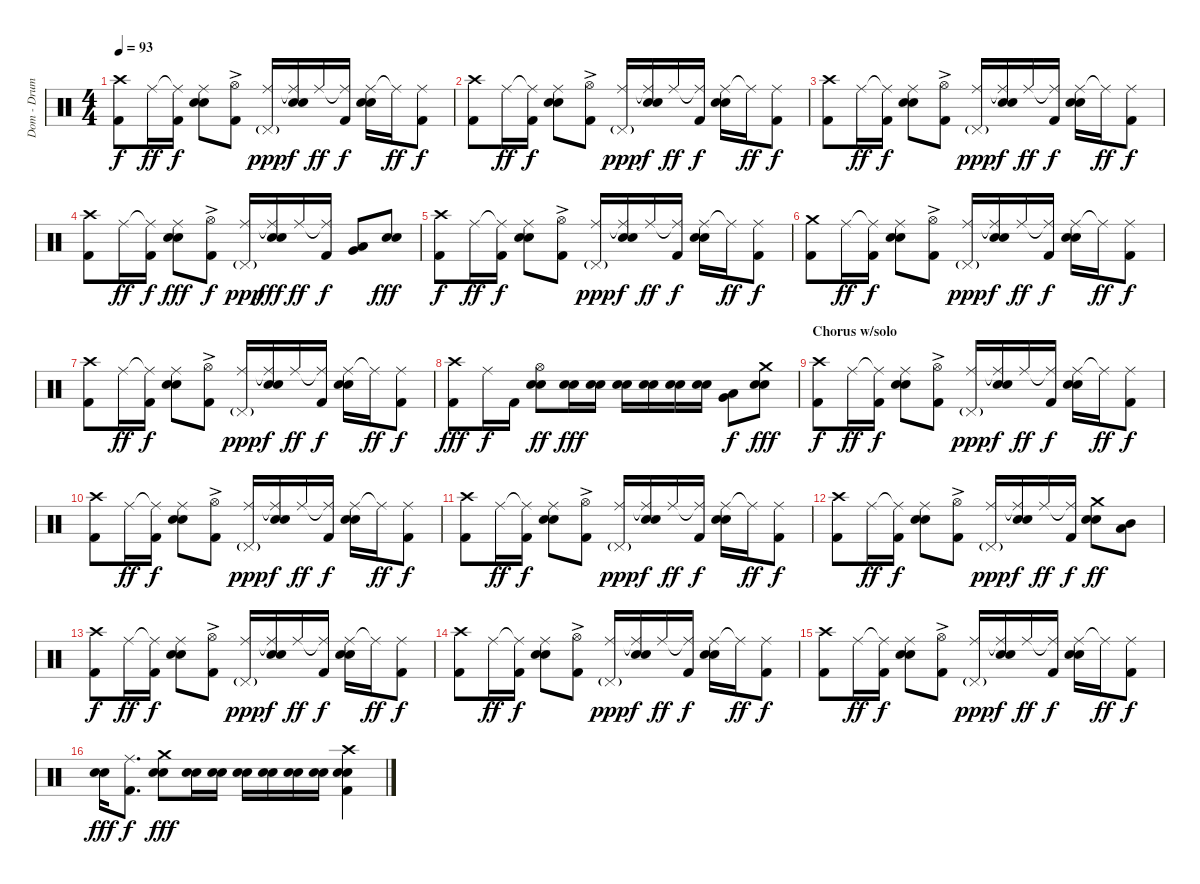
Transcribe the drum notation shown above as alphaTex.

\track ("Dom - Drums" "Dom - Drum") {instrument percussion}
\staff {score}
\articulation defaults
\ts (4 4)
\tempo 93
\clef neutral
\ks c
("Crash high (hit)" "Kick (hit) 2").8{dy f} "Ride (middle)".16{dy ff} ("Ride (middle)"{t} "Kick (hit) 2").16{dy f} ("Ride (middle)" "Snare (hit) 2" "Electric Snare (hit)").8 ("Hi-Hat (open)"{ac} "Kick (hit) 2").8 ("Ride (middle)" "Pedal Hi-Hat (hit)"{g}).16{dy ppp} ("Ride (middle)"{t} "Snare (hit) 2" "Electric Snare (hit)").16{dy f} "Ride (middle)".16{dy ff} ("Ride (middle)"{t} "Kick (hit) 2").16{dy f} ("Ride (middle)" "Snare (hit) 2" "Electric Snare (hit)").16 "Ride (middle)"{t}.16{dy ff} ("Ride (middle)" "Kick (hit) 2").8{dy f} |
("Crash high (hit)" "Kick (hit) 2").8 "Ride (middle)".16{dy ff} ("Ride (middle)"{t} "Kick (hit) 2").16{dy f} ("Ride (middle)" "Snare (hit) 2" "Electric Snare (hit)").8 ("Hi-Hat (open)"{ac} "Kick (hit) 2").8 ("Ride (middle)" "Pedal Hi-Hat (hit)"{g}).16{dy ppp} ("Ride (middle)"{t} "Snare (hit) 2" "Electric Snare (hit)").16{dy f} "Ride (middle)".16{dy ff} ("Ride (middle)"{t} "Kick (hit) 2").16{dy f} ("Ride (middle)" "Snare (hit) 2" "Electric Snare (hit)").16 "Ride (middle)"{t}.16{dy ff} ("Ride (middle)" "Kick (hit) 2").8{dy f} |
("Crash high (hit)" "Kick (hit) 2").8 "Ride (middle)".16{dy ff} ("Ride (middle)"{t} "Kick (hit) 2").16{dy f} ("Ride (middle)" "Snare (hit) 2" "Electric Snare (hit)").8 ("Hi-Hat (open)"{ac} "Kick (hit) 2").8 ("Ride (middle)" "Pedal Hi-Hat (hit)"{g}).16{dy ppp} ("Ride (middle)"{t} "Snare (hit) 2" "Electric Snare (hit)").16{dy f} "Ride (middle)".16{dy ff} ("Ride (middle)"{t} "Kick (hit) 2").16{dy f} ("Ride (middle)" "Snare (hit) 2" "Electric Snare (hit)").16 "Ride (middle)"{t}.16{dy ff} ("Ride (middle)" "Kick (hit) 2").8{dy f} |
("Crash high (hit)" "Kick (hit) 2").8 "Ride (middle)".16{dy ff} ("Ride (middle)"{t} "Kick (hit) 2").16{dy f} ("Ride (middle)" "Snare (hit) 2" "Electric Snare (hit)").8{dy fff} ("Hi-Hat (open)"{ac} "Kick (hit) 2").8{dy f} ("Ride (middle)" "Pedal Hi-Hat (hit)"{g}).16{dy ppp} ("Ride (middle)"{t} "Snare (hit) 2" "Electric Snare (hit)").16{dy fff} "Ride (middle)".16{dy ff} ("Ride (middle)"{t} "Kick (hit) 2").16{dy f} ("Low Floor Tom (hit)" "Very Low Tom (hit)").8{bd 240} ("Snare (hit) 2" "Electric Snare (hit)").8{bd 240 dy fff} |
("Crash high (hit)" "Kick (hit) 2").8{dy f} "Ride (middle)".16{dy ff} ("Ride (middle)"{t} "Kick (hit) 2").16{dy f} ("Ride (middle)" "Snare (hit) 2" "Electric Snare (hit)").8 ("Hi-Hat (open)"{ac} "Kick (hit) 2").8 ("Ride (middle)" "Pedal Hi-Hat (hit)"{g}).16{dy ppp} ("Ride (middle)"{t} "Snare (hit) 2" "Electric Snare (hit)").16{dy f} "Ride (middle)".16{dy ff} ("Ride (middle)"{t} "Kick (hit) 2").16{dy f} ("Ride (middle)" "Snare (hit) 2" "Electric Snare (hit)").16 "Ride (middle)"{t}.16{dy ff} ("Ride (middle)" "Kick (hit) 2").8{dy f} |
("Crash medium (hit)" "Kick (hit) 2").8 "Ride (middle)".16{dy ff} ("Ride (middle)"{t} "Kick (hit) 2").16{dy f} ("Ride (middle)" "Snare (hit) 2" "Electric Snare (hit)").8 ("Hi-Hat (open)"{ac} "Kick (hit) 2").8 ("Ride (middle)" "Pedal Hi-Hat (hit)"{g}).16{dy ppp} ("Ride (middle)"{t} "Snare (hit) 2" "Electric Snare (hit)").16{dy f} "Ride (middle)".16{dy ff} ("Ride (middle)"{t} "Kick (hit) 2").16{dy f} ("Ride (middle)" "Snare (hit) 2" "Electric Snare (hit)").16 "Ride (middle)"{t}.16{dy ff} ("Ride (middle)" "Kick (hit) 2").8{dy f} |
("Crash high (hit)" "Kick (hit) 2").8 "Ride (middle)".16{dy ff} ("Ride (middle)"{t} "Kick (hit) 2").16{dy f} ("Ride (middle)" "Snare (hit) 2" "Electric Snare (hit)").8 ("Hi-Hat (open)"{ac} "Kick (hit) 2").8 ("Ride (middle)" "Pedal Hi-Hat (hit)"{g}).16{dy ppp} ("Ride (middle)"{t} "Snare (hit) 2" "Electric Snare (hit)").16{dy f} "Ride (middle)".16{dy ff} ("Ride (middle)"{t} "Kick (hit) 2").16{dy f} ("Ride (middle)" "Snare (hit) 2" "Electric Snare (hit)").16 "Ride (middle)"{t}.16{dy ff} ("Ride (middle)" "Kick (hit) 2").8{dy f} |
("Crash high (hit)" "Kick (hit) 2").8{dy fff} "Ride (middle)".16{dy f} "Kick (hit) 2".16 ("Hi-Hat (open)" "Electric Snare (hit)" "Snare (hit) 2").8{dy ff} ("Electric Snare (hit)" "Snare (hit) 2").16{dy fff} ("Electric Snare (hit)" "Snare (hit) 2").16 ("Electric Snare (hit)" "Snare (hit) 2").16 ("Electric Snare (hit)" "Snare (hit) 2").16 ("Electric Snare (hit)" "Snare (hit) 2").16 ("Electric Snare (hit)" "Snare (hit) 2").16 ("Very Low Tom (hit)" "Low Tom (hit)").8{bd 240 dy f} ("Crash medium (hit)" "Electric Snare (hit)" "Snare (hit) 2").8{bd 240 dy fff} |
\section ("" "Chorus w/solo")
("Crash high (hit)" "Kick (hit) 2").8{dy f} "Ride (middle)".16{dy ff} ("Ride (middle)"{t} "Kick (hit) 2").16{dy f} ("Ride (middle)" "Snare (hit) 2" "Electric Snare (hit)").8 ("Hi-Hat (open)"{ac} "Kick (hit) 2").8 ("Ride (middle)" "Pedal Hi-Hat (hit)"{g}).16{dy ppp} ("Ride (middle)"{t} "Snare (hit) 2" "Electric Snare (hit)").16{dy f} "Ride (middle)".16{dy ff} ("Ride (middle)"{t} "Kick (hit) 2").16{dy f} ("Ride (middle)" "Snare (hit) 2" "Electric Snare (hit)").16 "Ride (middle)"{t}.16{dy ff} ("Ride (middle)" "Kick (hit) 2").8{dy f} |
("Crash high (hit)" "Kick (hit) 2").8 "Ride (middle)".16{dy ff} ("Ride (middle)"{t} "Kick (hit) 2").16{dy f} ("Ride (middle)" "Snare (hit) 2" "Electric Snare (hit)").8 ("Hi-Hat (open)"{ac} "Kick (hit) 2").8 ("Ride (middle)" "Pedal Hi-Hat (hit)"{g}).16{dy ppp} ("Ride (middle)"{t} "Snare (hit) 2" "Electric Snare (hit)").16{dy f} "Ride (middle)".16{dy ff} ("Ride (middle)"{t} "Kick (hit) 2").16{dy f} ("Ride (middle)" "Snare (hit) 2" "Electric Snare (hit)").16 "Ride (middle)"{t}.16{dy ff} ("Ride (middle)" "Kick (hit) 2").8{dy f} |
("Crash high (hit)" "Kick (hit) 2").8 "Ride (middle)".16{dy ff} ("Ride (middle)"{t} "Kick (hit) 2").16{dy f} ("Ride (middle)" "Snare (hit) 2" "Electric Snare (hit)").8 ("Hi-Hat (open)"{ac} "Kick (hit) 2").8 ("Ride (middle)" "Pedal Hi-Hat (hit)"{g}).16{dy ppp} ("Ride (middle)"{t} "Snare (hit) 2" "Electric Snare (hit)").16{dy f} "Ride (middle)".16{dy ff} ("Ride (middle)"{t} "Kick (hit) 2").16{dy f} ("Ride (middle)" "Snare (hit) 2" "Electric Snare (hit)").16 "Ride (middle)"{t}.16{dy ff} ("Ride (middle)" "Kick (hit) 2").8{dy f} |
("Crash high (hit)" "Kick (hit) 2").8 "Ride (middle)".16{dy ff} ("Ride (middle)"{t} "Kick (hit) 2").16{dy f} ("Ride (middle)" "Snare (hit) 2" "Electric Snare (hit)").8 ("Hi-Hat (open)"{ac} "Kick (hit) 2").8 ("Ride (middle)" "Pedal Hi-Hat (hit)"{g}).16{dy ppp} ("Ride (middle)"{t} "Snare (hit) 2" "Electric Snare (hit)").16{dy f} "Ride (middle)".16{dy ff} ("Ride (middle)"{t} "Kick (hit) 2").16{dy f} ("Crash medium (hit)" "Snare (hit) 2" "Electric Snare (hit)").8{dy ff} ("Mid Tom (hit)" "Low Tom (hit)").8{bd 240} |
("Crash high (hit)" "Kick (hit) 2").8{dy f} "Ride (middle)".16{dy ff} ("Ride (middle)"{t} "Kick (hit) 2").16{dy f} ("Ride (middle)" "Snare (hit) 2" "Electric Snare (hit)").8 ("Hi-Hat (open)"{ac} "Kick (hit) 2").8 ("Ride (middle)" "Pedal Hi-Hat (hit)"{g}).16{dy ppp} ("Ride (middle)"{t} "Snare (hit) 2" "Electric Snare (hit)").16{dy f} "Ride (middle)".16{dy ff} ("Ride (middle)"{t} "Kick (hit) 2").16{dy f} ("Ride (middle)" "Snare (hit) 2" "Electric Snare (hit)").16 "Ride (middle)"{t}.16{dy ff} ("Ride (middle)" "Kick (hit) 2").8{dy f} |
("Crash high (hit)" "Kick (hit) 2").8 "Ride (middle)".16{dy ff} ("Ride (middle)"{t} "Kick (hit) 2").16{dy f} ("Ride (middle)" "Snare (hit) 2" "Electric Snare (hit)").8 ("Hi-Hat (open)"{ac} "Kick (hit) 2").8 ("Ride (middle)" "Pedal Hi-Hat (hit)"{g}).16{dy ppp} ("Ride (middle)"{t} "Snare (hit) 2" "Electric Snare (hit)").16{dy f} "Ride (middle)".16{dy ff} ("Ride (middle)"{t} "Kick (hit) 2").16{dy f} ("Ride (middle)" "Snare (hit) 2" "Electric Snare (hit)").16 "Ride (middle)"{t}.16{dy ff} ("Ride (middle)" "Kick (hit) 2").8{dy f} |
("Crash high (hit)" "Kick (hit) 2").8 "Ride (middle)".16{dy ff} ("Ride (middle)"{t} "Kick (hit) 2").16{dy f} ("Ride (middle)" "Snare (hit) 2" "Electric Snare (hit)").8 ("Hi-Hat (open)"{ac} "Kick (hit) 2").8 ("Ride (middle)" "Pedal Hi-Hat (hit)"{g}).16{dy ppp} ("Ride (middle)"{t} "Snare (hit) 2" "Electric Snare (hit)").16{dy f} "Ride (middle)".16{dy ff} ("Ride (middle)"{t} "Kick (hit) 2").16{dy f} ("Ride (middle)" "Snare (hit) 2" "Electric Snare (hit)").16 "Ride (middle)"{t}.16{dy ff} ("Ride (middle)" "Kick (hit) 2").8{dy f} |
("Electric Snare (hit)" "Snare (hit) 2").16{dy fff} ("Ride (middle)" "Kick (hit) 2").8{d dy f} ("Crash medium (hit)" "Electric Snare (hit)" "Snare (hit) 2").8{dy fff} ("Electric Snare (hit)" "Snare (hit) 2").16 ("Electric Snare (hit)" "Snare (hit) 2").16 ("Electric Snare (hit)" "Snare (hit) 2").16 ("Electric Snare (hit)" "Snare (hit) 2").16 ("Electric Snare (hit)" "Snare (hit) 2").16 ("Electric Snare (hit)" "Snare (hit) 2").16 ("Crash high (hit)" "Electric Snare (hit)" "Snare (hit) 2" "Kick (hit) 2").4
